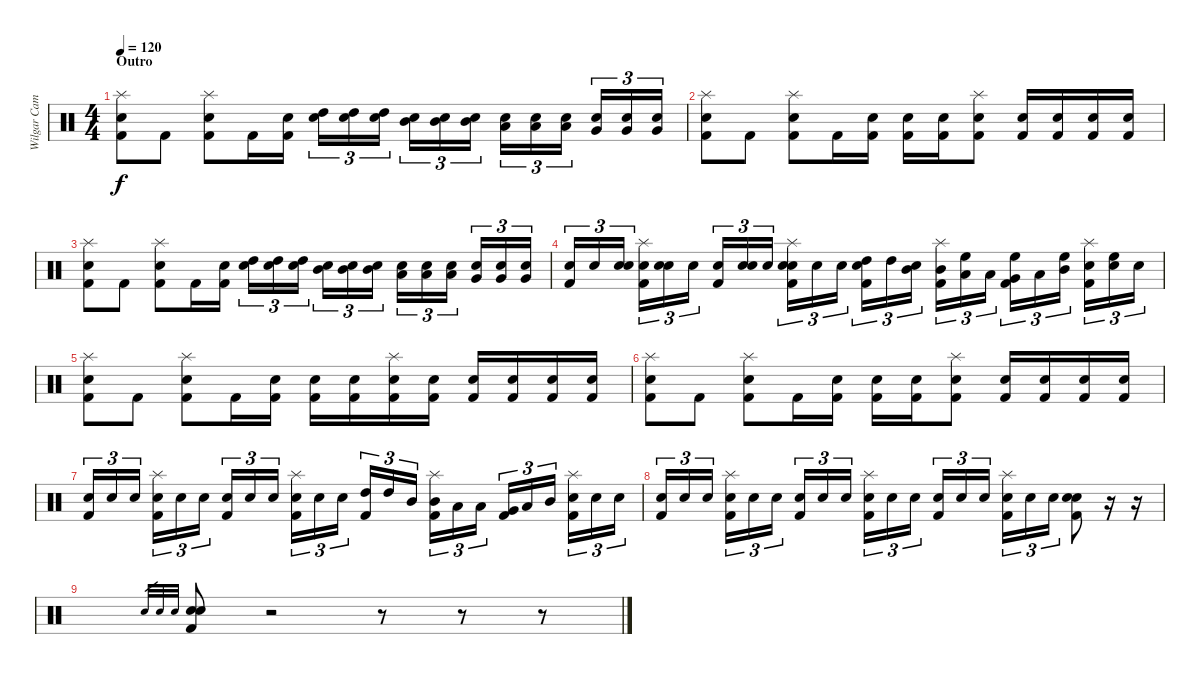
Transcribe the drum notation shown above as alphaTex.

\track ("Wilgar Campbell" "Wilgar Cam") {instrument percussion}
\staff {score}
\articulation defaults
\ts (4 4)
\section ("" "Outro")
\tempo 120
\clef neutral
\ks c
("Splash (hit)" "Snare (hit) 2" "Kick (hit) 2").8{dy f} "Kick (hit) 2".8 ("Splash (hit)" "Electric Snare (hit)" "Kick (hit) 2").8 "Kick (hit) 2".16 ("Snare (hit) 2" "Kick (hit) 2").16 ("High Tom (hit)" "Electric Snare (hit)").16{tu (3 2)} ("High Tom (hit)" "Electric Snare (hit)").16{tu (3 2)} ("High Tom (hit)" "Electric Snare (hit)").16{tu (3 2)} ("Mid Tom (hit)" "Electric Snare (hit)").16{tu (3 2)} ("Mid Tom (hit)" "Electric Snare (hit)").16{tu (3 2)} ("Mid Tom (hit)" "Electric Snare (hit)").16{tu (3 2)} ("Low Tom (hit)" "Snare (hit) 2").16{tu (3 2)} ("Low Tom (hit)" "Snare (hit) 2").16{tu (3 2)} ("Low Tom (hit)" "Snare (hit) 2").16{tu (3 2)} ("Very Low Tom (hit)" "Snare (hit) 2").16{tu (3 2)} ("Very Low Tom (hit)" "Snare (hit) 2").16{tu (3 2)} ("Very Low Tom (hit)" "Snare (hit) 2").16{tu (3 2)} |
("Splash (hit)" "Snare (hit) 2" "Kick (hit) 2").8 "Kick (hit) 2".8 ("Splash (hit)" "Electric Snare (hit)" "Kick (hit) 2").8 "Kick (hit) 2".16 ("Snare (hit) 2" "Kick (hit) 2").16 ("Snare (hit) 2" "Kick (hit) 2").16 ("Electric Snare (hit)" "Kick (hit) 2").16 ("Splash (hit)" "Electric Snare (hit)" "Kick (hit) 2").8 ("Snare (hit) 2" "Kick (hit) 2").16 ("Snare (hit) 2" "Kick (hit) 2").16 ("Snare (hit) 2" "Kick (hit) 2").16 ("Snare (hit) 2" "Kick (hit) 2").16 |
("Splash (hit)" "Snare (hit) 2" "Kick (hit) 2").8 "Kick (hit) 2".8 ("Splash (hit)" "Electric Snare (hit)" "Kick (hit) 2").8 "Kick (hit) 2".16 ("Snare (hit) 2" "Kick (hit) 2").16 ("High Tom (hit)" "Electric Snare (hit)").16{tu (3 2)} ("High Tom (hit)" "Electric Snare (hit)").16{tu (3 2)} ("High Tom (hit)" "Electric Snare (hit)").16{tu (3 2)} ("Mid Tom (hit)" "Electric Snare (hit)").16{tu (3 2)} ("Mid Tom (hit)" "Electric Snare (hit)").16{tu (3 2)} ("Mid Tom (hit)" "Electric Snare (hit)").16{tu (3 2)} ("Low Tom (hit)" "Snare (hit) 2").16{tu (3 2)} ("Low Tom (hit)" "Snare (hit) 2").16{tu (3 2)} ("Low Tom (hit)" "Snare (hit) 2").16{tu (3 2)} ("Very Low Tom (hit)" "Snare (hit) 2").16{tu (3 2)} ("Very Low Tom (hit)" "Snare (hit) 2").16{tu (3 2)} ("Very Low Tom (hit)" "Snare (hit) 2").16{tu (3 2)} |
("Electric Snare (hit)" "Kick (hit) 2").16{tu (3 2)} "Electric Snare (hit)".16{tu (3 2)} ("Snare (hit) 2" "Electric Snare (hit)").16{tu (3 2)} ("Splash (hit)" "Electric Snare (hit)" "Kick (hit) 2").16{tu (3 2)} ("Snare (hit) 2" "Electric Snare (hit)").16{tu (3 2)} "Electric Snare (hit)".16{tu (3 2)} ("Snare (hit) 2" "Kick (hit) 2").16{tu (3 2)} ("Electric Snare (hit)" "Snare (hit) 2").16{tu (3 2)} "Snare (hit) 2".16{tu (3 2)} ("Electric Snare (hit)" "Splash (hit)" "Snare (hit) 2" "Kick (hit) 2").16{tu (3 2)} "Snare (hit) 2".16{tu (3 2)} "Snare (hit) 2".16{tu (3 2)} ("Snare (hit) 2" "High Tom (hit)" "Kick (hit) 2").16{tu (3 2)} "High Tom (hit)".16{tu (3 2)} ("Snare (hit) 2" "Mid Tom (hit)").16{tu (3 2)} ("Splash (hit)" "Mid Tom (hit)" "Kick (hit) 2").16{tu (3 2)} ("High Floor Tom (hit)" "Low Tom (hit)").16{tu (3 2)} "Low Tom (hit)".16{tu (3 2)} ("High Floor Tom (hit)" "Very Low Tom (hit)" "Kick (hit) 2").16{tu (3 2)} "Low Tom (hit)".16{tu (3 2)} ("High Floor Tom (hit)" "Mid Tom (hit)").16{tu (3 2)} ("Splash (hit)" "Electric Snare (hit)" "Kick (hit) 2").16{tu (3 2)} ("High Floor Tom (hit)" "Electric Snare (hit)").16{tu (3 2)} "Electric Snare (hit)".16{tu (3 2)} |
("Splash (hit)" "Snare (hit) 2" "Kick (hit) 2").8 "Kick (hit) 2".8 ("Splash (hit)" "Electric Snare (hit)" "Kick (hit) 2").8 "Kick (hit) 2".16 ("Snare (hit) 2" "Kick (hit) 2").16 ("Snare (hit) 2" "Kick (hit) 2").16 ("Electric Snare (hit)" "Kick (hit) 2").16 ("Splash (hit)" "Electric Snare (hit)" "Kick (hit) 2").16 ("Snare (hit) 2" "Kick (hit) 2").16 ("Snare (hit) 2" "Kick (hit) 2").16 ("Snare (hit) 2" "Kick (hit) 2").16 ("Snare (hit) 2" "Kick (hit) 2").16 ("Electric Snare (hit)" "Kick (hit) 2").16 |
("Splash (hit)" "Snare (hit) 2" "Kick (hit) 2").8 "Kick (hit) 2".8 ("Splash (hit)" "Electric Snare (hit)" "Kick (hit) 2").8 "Kick (hit) 2".16 ("Snare (hit) 2" "Kick (hit) 2").16 ("Snare (hit) 2" "Kick (hit) 2").16 ("Electric Snare (hit)" "Kick (hit) 2").16 ("Splash (hit)" "Electric Snare (hit)" "Kick (hit) 2").8 ("Snare (hit) 2" "Kick (hit) 2").16 ("Snare (hit) 2" "Kick (hit) 2").16 ("Snare (hit) 2" "Kick (hit) 2").16 ("Snare (hit) 2" "Kick (hit) 2").16 |
("Electric Snare (hit)" "Kick (hit) 2").16{tu (3 2)} "Electric Snare (hit)".16{tu (3 2)} "Electric Snare (hit)".16{tu (3 2)} ("Splash (hit)" "Electric Snare (hit)" "Kick (hit) 2").16{tu (3 2)} "Electric Snare (hit)".16{tu (3 2)} "Electric Snare (hit)".16{tu (3 2)} ("Snare (hit) 2" "Kick (hit) 2").16{tu (3 2)} "Snare (hit) 2".16{tu (3 2)} "Snare (hit) 2".16{tu (3 2)} ("Splash (hit)" "Snare (hit) 2" "Kick (hit) 2").16{tu (3 2)} "Snare (hit) 2".16{tu (3 2)} "Snare (hit) 2".16{tu (3 2)} ("High Tom (hit)" "Kick (hit) 2").16{tu (3 2)} "High Tom (hit)".16{tu (3 2)} "Mid Tom (hit)".16{tu (3 2)} ("Splash (hit)" "Mid Tom (hit)" "Kick (hit) 2").16{tu (3 2)} "Low Tom (hit)".16{tu (3 2)} "Low Tom (hit)".16{tu (3 2)} ("Very Low Tom (hit)" "Kick (hit) 2").16{tu (3 2)} "Low Tom (hit)".16{tu (3 2)} "Mid Tom (hit)".16{tu (3 2)} ("Splash (hit)" "Electric Snare (hit)" "Kick (hit) 2").16{tu (3 2)} "Electric Snare (hit)".16{tu (3 2)} "Electric Snare (hit)".16{tu (3 2)} |
("Electric Snare (hit)" "Kick (hit) 2").16{tu (3 2)} "Electric Snare (hit)".16{tu (3 2)} "Electric Snare (hit)".16{tu (3 2)} ("Splash (hit)" "Electric Snare (hit)" "Kick (hit) 2").16{tu (3 2)} "Electric Snare (hit)".16{tu (3 2)} "Electric Snare (hit)".16{tu (3 2)} ("Snare (hit) 2" "Kick (hit) 2").16{tu (3 2)} "Snare (hit) 2".16{tu (3 2)} "Snare (hit) 2".16{tu (3 2)} ("Splash (hit)" "Snare (hit) 2" "Kick (hit) 2").16{tu (3 2)} "Snare (hit) 2".16{tu (3 2)} "Snare (hit) 2".16{tu (3 2)} ("Snare (hit) 2" "Kick (hit) 2").16{tu (3 2)} "Snare (hit) 2".16{tu (3 2)} "Snare (hit) 2".16{tu (3 2)} ("Splash (hit)" "Snare (hit) 2" "Kick (hit) 2").16{tu (3 2)} "Snare (hit) 2".16{tu (3 2)} "Snare (hit) 2".16{tu (3 2)} ("Electric Snare (hit)" "Snare (hit) 2" "Kick (hit) 2").8 r.16 r.16 |
"Snare (hit) 2".32{gr} "Snare (hit) 2".32{gr} "Snare (hit) 2".32{gr} ("Electric Snare (hit)" "Electric Snare (hit)" "Kick (hit) 2").8 r.2 r.8 r.8 r.8
